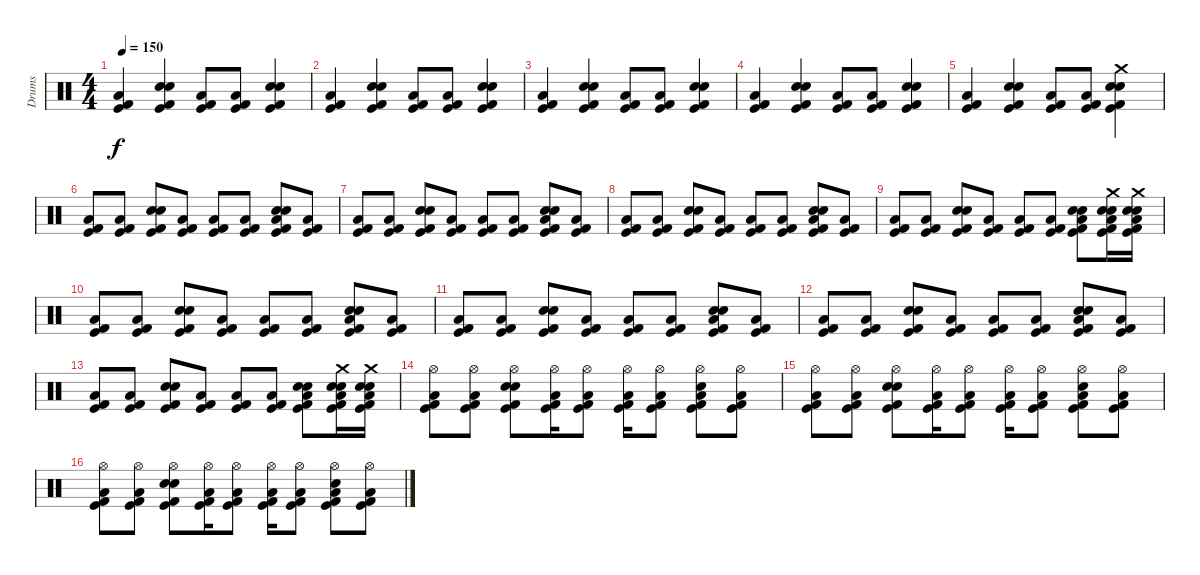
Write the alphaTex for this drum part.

\track ("Drums" "Drums") {instrument percussion}
\staff {score}
\articulation defaults
\ts (4 4)
\tempo 150
\clef neutral
\ks c
("Kick (hit) 2" "Low Floor Tom (hit)" "Kick (hit)").4{dy f} ("Kick (hit) 2" "Snare (hit) 2" "Electric Snare (hit)" "Kick (hit)").4 ("Kick (hit) 2" "Low Floor Tom (hit)" "Kick (hit)").8 ("Kick (hit) 2" "Low Floor Tom (hit)" "Kick (hit)").8 ("Kick (hit) 2" "Snare (hit) 2" "Electric Snare (hit)" "Kick (hit)").4 |
("Kick (hit) 2" "Low Floor Tom (hit)" "Kick (hit)").4 ("Kick (hit) 2" "Snare (hit) 2" "Electric Snare (hit)" "Kick (hit)").4 ("Kick (hit) 2" "Low Floor Tom (hit)" "Kick (hit)").8 ("Kick (hit) 2" "Low Floor Tom (hit)" "Kick (hit)").8 ("Kick (hit) 2" "Snare (hit) 2" "Electric Snare (hit)" "Kick (hit)").4 |
("Kick (hit) 2" "Low Floor Tom (hit)" "Kick (hit)").4 ("Kick (hit) 2" "Snare (hit) 2" "Electric Snare (hit)" "Kick (hit)").4 ("Kick (hit) 2" "Low Floor Tom (hit)" "Kick (hit)").8 ("Kick (hit) 2" "Low Floor Tom (hit)" "Kick (hit)").8 ("Kick (hit) 2" "Snare (hit) 2" "Electric Snare (hit)" "Kick (hit)").4 |
("Kick (hit) 2" "Low Floor Tom (hit)" "Kick (hit)").4 ("Kick (hit) 2" "Snare (hit) 2" "Electric Snare (hit)" "Kick (hit)").4 ("Kick (hit) 2" "Low Floor Tom (hit)" "Kick (hit)").8 ("Kick (hit) 2" "Low Floor Tom (hit)" "Kick (hit)").8 ("Kick (hit) 2" "Snare (hit) 2" "Electric Snare (hit)" "Kick (hit)").4 |
("Kick (hit) 2" "Low Floor Tom (hit)" "Kick (hit)").4 ("Kick (hit) 2" "Snare (hit) 2" "Electric Snare (hit)" "Kick (hit)").4 ("Kick (hit) 2" "Low Floor Tom (hit)" "Kick (hit)").8 ("Kick (hit) 2" "Low Floor Tom (hit)" "Kick (hit)").8 ("Crash medium (hit)" "Kick (hit) 2" "Snare (hit) 2" "Electric Snare (hit)" "Kick (hit)").4 |
("Kick (hit) 2" "Low Floor Tom (hit)" "Kick (hit)").8 ("Kick (hit) 2" "Low Floor Tom (hit)" "Kick (hit)").8 ("Snare (hit) 2" "Kick (hit) 2" "Electric Snare (hit)" "Kick (hit)").8 ("Low Floor Tom (hit)" "Kick (hit) 2" "Kick (hit)").8 ("Low Floor Tom (hit)" "Kick (hit) 2" "Kick (hit)").8 ("Low Floor Tom (hit)" "Kick (hit) 2" "Kick (hit)").8 ("Snare (hit) 2" "Low Floor Tom (hit)" "Kick (hit) 2" "Electric Snare (hit)" "Kick (hit)").8 ("Low Floor Tom (hit)" "Kick (hit) 2" "Kick (hit)").8 |
("Kick (hit) 2" "Low Floor Tom (hit)" "Kick (hit)").8 ("Kick (hit) 2" "Low Floor Tom (hit)" "Kick (hit)").8 ("Snare (hit) 2" "Kick (hit) 2" "Electric Snare (hit)" "Kick (hit)").8 ("Low Floor Tom (hit)" "Kick (hit) 2" "Kick (hit)").8 ("Low Floor Tom (hit)" "Kick (hit) 2" "Kick (hit)").8 ("Low Floor Tom (hit)" "Kick (hit) 2" "Kick (hit)").8 ("Snare (hit) 2" "Low Floor Tom (hit)" "Kick (hit) 2" "Electric Snare (hit)" "Kick (hit)").8 ("Low Floor Tom (hit)" "Kick (hit) 2" "Kick (hit)").8 |
("Kick (hit) 2" "Low Floor Tom (hit)" "Kick (hit)").8 ("Kick (hit) 2" "Low Floor Tom (hit)" "Kick (hit)").8 ("Snare (hit) 2" "Kick (hit) 2" "Electric Snare (hit)" "Kick (hit)").8 ("Low Floor Tom (hit)" "Kick (hit) 2" "Kick (hit)").8 ("Low Floor Tom (hit)" "Kick (hit) 2" "Kick (hit)").8 ("Low Floor Tom (hit)" "Kick (hit) 2" "Kick (hit)").8 ("Snare (hit) 2" "Low Floor Tom (hit)" "Kick (hit) 2" "Electric Snare (hit)" "Kick (hit)").8 ("Low Floor Tom (hit)" "Kick (hit) 2" "Kick (hit)").8 |
("Kick (hit) 2" "Low Floor Tom (hit)" "Kick (hit)").8 ("Kick (hit) 2" "Low Floor Tom (hit)" "Kick (hit)").8 ("Snare (hit) 2" "Kick (hit) 2" "Electric Snare (hit)" "Kick (hit)").8 ("Low Floor Tom (hit)" "Kick (hit) 2" "Kick (hit)").8 ("Low Floor Tom (hit)" "Kick (hit) 2" "Kick (hit)").8 ("Low Floor Tom (hit)" "Kick (hit) 2" "Kick (hit)").8 ("Snare (hit) 2" "Low Floor Tom (hit)" "Kick (hit) 2" "Electric Snare (hit)" "Kick (hit)").8 ("Crash medium (hit)" "Electric Snare (hit)" "Snare (hit) 2" "Low Floor Tom (hit)" "Kick (hit) 2" "Kick (hit)").16 ("Crash medium (hit)" "Electric Snare (hit)" "Snare (hit) 2" "Low Floor Tom (hit)" "Kick (hit) 2" "Kick (hit)").16 |
("Kick (hit) 2" "Low Floor Tom (hit)" "Kick (hit)").8 ("Kick (hit) 2" "Low Floor Tom (hit)" "Kick (hit)").8 ("Snare (hit) 2" "Kick (hit) 2" "Electric Snare (hit)" "Kick (hit)").8 ("Low Floor Tom (hit)" "Kick (hit) 2" "Kick (hit)").8 ("Low Floor Tom (hit)" "Kick (hit) 2" "Kick (hit)").8 ("Low Floor Tom (hit)" "Kick (hit) 2" "Kick (hit)").8 ("Snare (hit) 2" "Low Floor Tom (hit)" "Kick (hit) 2" "Electric Snare (hit)" "Kick (hit)").8 ("Low Floor Tom (hit)" "Kick (hit) 2" "Kick (hit)").8 |
("Kick (hit) 2" "Low Floor Tom (hit)" "Kick (hit)").8 ("Kick (hit) 2" "Low Floor Tom (hit)" "Kick (hit)").8 ("Snare (hit) 2" "Kick (hit) 2" "Electric Snare (hit)" "Kick (hit)").8 ("Low Floor Tom (hit)" "Kick (hit) 2" "Kick (hit)").8 ("Low Floor Tom (hit)" "Kick (hit) 2" "Kick (hit)").8 ("Low Floor Tom (hit)" "Kick (hit) 2" "Kick (hit)").8 ("Snare (hit) 2" "Low Floor Tom (hit)" "Kick (hit) 2" "Electric Snare (hit)" "Kick (hit)").8 ("Low Floor Tom (hit)" "Kick (hit) 2" "Kick (hit)").8 |
("Kick (hit) 2" "Low Floor Tom (hit)" "Kick (hit)").8 ("Kick (hit) 2" "Low Floor Tom (hit)" "Kick (hit)").8 ("Snare (hit) 2" "Kick (hit) 2" "Electric Snare (hit)" "Kick (hit)").8 ("Low Floor Tom (hit)" "Kick (hit) 2" "Kick (hit)").8 ("Low Floor Tom (hit)" "Kick (hit) 2" "Kick (hit)").8 ("Low Floor Tom (hit)" "Kick (hit) 2" "Kick (hit)").8 ("Snare (hit) 2" "Low Floor Tom (hit)" "Kick (hit) 2" "Electric Snare (hit)" "Kick (hit)").8 ("Low Floor Tom (hit)" "Kick (hit) 2" "Kick (hit)").8 |
("Kick (hit) 2" "Low Floor Tom (hit)" "Kick (hit)").8 ("Kick (hit) 2" "Low Floor Tom (hit)" "Kick (hit)").8 ("Snare (hit) 2" "Kick (hit) 2" "Electric Snare (hit)" "Kick (hit)").8 ("Low Floor Tom (hit)" "Kick (hit) 2" "Kick (hit)").8 ("Low Floor Tom (hit)" "Kick (hit) 2" "Kick (hit)").8 ("Low Floor Tom (hit)" "Kick (hit) 2" "Kick (hit)").8 ("Snare (hit) 2" "Low Floor Tom (hit)" "Kick (hit) 2" "Electric Snare (hit)" "Kick (hit)").8 ("Crash medium (hit)" "Electric Snare (hit)" "Snare (hit) 2" "Low Floor Tom (hit)" "Kick (hit) 2" "Kick (hit)").16 ("Crash medium (hit)" "Electric Snare (hit)" "Snare (hit) 2" "Low Floor Tom (hit)" "Kick (hit) 2" "Kick (hit)").16 |
("Hi-Hat (open)" "Kick (hit) 2" "Low Floor Tom (hit)" "Kick (hit)").8 ("Hi-Hat (open)" "Kick (hit) 2" "Low Floor Tom (hit)" "Kick (hit)").8 ("Hi-Hat (open)" "Snare (hit) 2" "Kick (hit) 2" "Electric Snare (hit)" "Kick (hit)").8 ("Hi-Hat (open)" "Low Floor Tom (hit)" "Kick (hit) 2" "Kick (hit)").16 ("Hi-Hat (open)" "Low Floor Tom (hit)" "Kick (hit) 2" "Kick (hit)").8 ("Hi-Hat (open)" "Low Floor Tom (hit)" "Kick (hit) 2" "Kick (hit)").16 ("Hi-Hat (open)" "Low Floor Tom (hit)" "Kick (hit) 2" "Kick (hit)").8 ("Hi-Hat (open)" "Snare (hit) 2" "Low Floor Tom (hit)" "Kick (hit) 2" "Kick (hit)").8 ("Hi-Hat (open)" "Low Floor Tom (hit)" "Kick (hit) 2" "Kick (hit)").8 |
("Hi-Hat (open)" "Kick (hit) 2" "Low Floor Tom (hit)" "Kick (hit)").8 ("Hi-Hat (open)" "Kick (hit) 2" "Low Floor Tom (hit)" "Kick (hit)").8 ("Hi-Hat (open)" "Snare (hit) 2" "Kick (hit) 2" "Electric Snare (hit)" "Kick (hit)").8 ("Hi-Hat (open)" "Low Floor Tom (hit)" "Kick (hit) 2" "Kick (hit)").16 ("Hi-Hat (open)" "Low Floor Tom (hit)" "Kick (hit) 2" "Kick (hit)").8 ("Hi-Hat (open)" "Low Floor Tom (hit)" "Kick (hit) 2" "Kick (hit)").16 ("Hi-Hat (open)" "Low Floor Tom (hit)" "Kick (hit) 2" "Kick (hit)").8 ("Hi-Hat (open)" "Snare (hit) 2" "Low Floor Tom (hit)" "Kick (hit) 2" "Kick (hit)").8 ("Hi-Hat (open)" "Low Floor Tom (hit)" "Kick (hit) 2" "Kick (hit)").8 |
("Hi-Hat (open)" "Kick (hit) 2" "Low Floor Tom (hit)" "Kick (hit)").8 ("Hi-Hat (open)" "Kick (hit) 2" "Low Floor Tom (hit)" "Kick (hit)").8 ("Hi-Hat (open)" "Snare (hit) 2" "Kick (hit) 2" "Electric Snare (hit)" "Kick (hit)").8 ("Hi-Hat (open)" "Low Floor Tom (hit)" "Kick (hit) 2" "Kick (hit)").16 ("Hi-Hat (open)" "Low Floor Tom (hit)" "Kick (hit) 2" "Kick (hit)").8 ("Hi-Hat (open)" "Low Floor Tom (hit)" "Kick (hit) 2" "Kick (hit)").16 ("Hi-Hat (open)" "Low Floor Tom (hit)" "Kick (hit) 2" "Kick (hit)").8 ("Hi-Hat (open)" "Snare (hit) 2" "Low Floor Tom (hit)" "Kick (hit) 2" "Kick (hit)").8 ("Hi-Hat (open)" "Low Floor Tom (hit)" "Kick (hit) 2" "Kick (hit)").8
